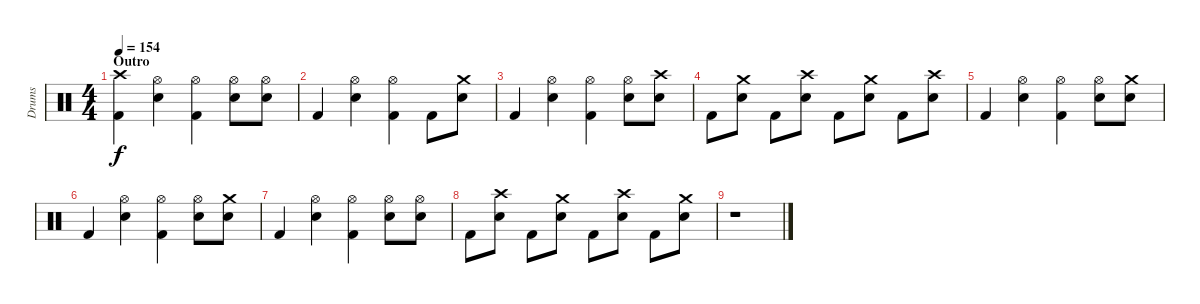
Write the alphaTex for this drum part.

\track ("Drums" "Drums") {instrument percussion}
\staff {score}
\articulation defaults
\ts (4 4)
\section ("" "Outro")
\tempo 154
\clef neutral
\ks c
("Crash high (hit)" "Kick (hit) 2").4{dy f} ("Hi-Hat (open)" "Snare (hit) 2").4 ("Hi-Hat (open)" "Kick (hit) 2").4 ("Hi-Hat (open)" "Snare (hit) 2").8 ("Hi-Hat (open)" "Snare (hit) 2").8 |
"Kick (hit) 2".4 ("Hi-Hat (open)" "Snare (hit) 2").4 ("Hi-Hat (open)" "Kick (hit) 2").4 "Kick (hit) 2".8 ("Crash medium (hit)" "Snare (hit) 2").8 |
"Kick (hit) 2".4 ("Hi-Hat (open)" "Snare (hit) 2").4 ("Hi-Hat (open)" "Kick (hit) 2").4 ("Hi-Hat (open)" "Snare (hit) 2").8 ("Crash high (hit)" "Snare (hit) 2").8 |
"Kick (hit) 2".8 ("Crash medium (hit)" "Snare (hit) 2").8 "Kick (hit) 2".8 ("Crash high (hit)" "Snare (hit) 2").8 "Kick (hit) 2".8 ("Crash medium (hit)" "Snare (hit) 2").8 "Kick (hit) 2".8 ("Crash high (hit)" "Snare (hit) 2").8 |
"Kick (hit) 2".4 ("Hi-Hat (open)" "Snare (hit) 2").4 ("Hi-Hat (open)" "Kick (hit) 2").4 ("Hi-Hat (open)" "Snare (hit) 2").8 ("Crash medium (hit)" "Snare (hit) 2").8 |
"Kick (hit) 2".4 ("Hi-Hat (open)" "Snare (hit) 2").4 ("Hi-Hat (open)" "Kick (hit) 2").4 ("Hi-Hat (open)" "Snare (hit) 2").8 ("Crash medium (hit)" "Snare (hit) 2").8 |
"Kick (hit) 2".4 ("Hi-Hat (open)" "Snare (hit) 2").4 ("Hi-Hat (open)" "Kick (hit) 2").4 ("Hi-Hat (open)" "Snare (hit) 2").8 ("Hi-Hat (open)" "Snare (hit) 2").8 |
"Kick (hit) 2".8 ("Crash high (hit)" "Snare (hit) 2").8 "Kick (hit) 2".8 ("Crash medium (hit)" "Snare (hit) 2").8 "Kick (hit) 2".8 ("Crash high (hit)" "Snare (hit) 2").8 "Kick (hit) 2".8 ("Crash medium (hit)" "Snare (hit) 2").8 |
r.1
